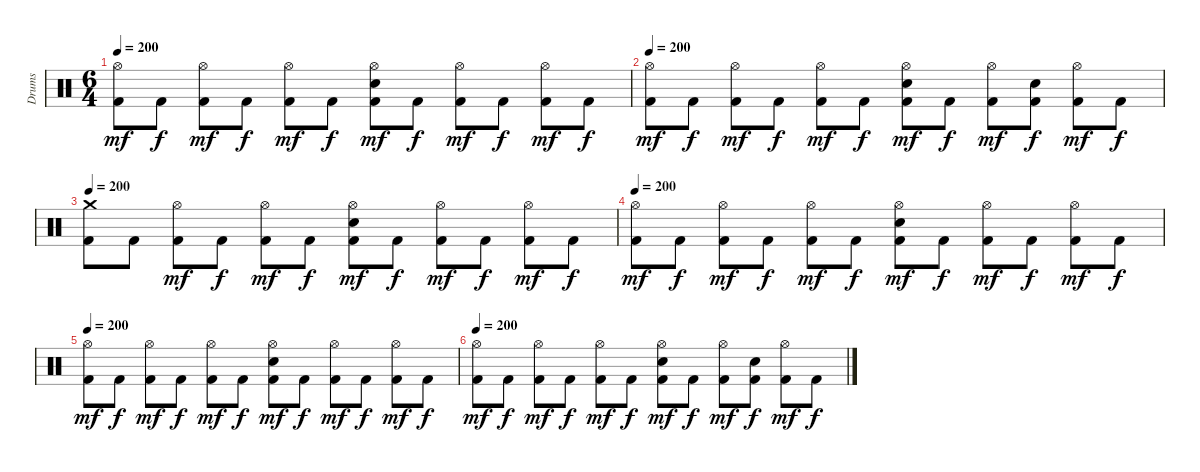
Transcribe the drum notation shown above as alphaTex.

\track ("Drums" "Drums") {instrument percussion}
\staff {score}
\articulation defaults
\ts (6 4)
\tempo 200
\clef neutral
\ks c
("Hi-Hat (open)" "Kick (hit) 2").8{dy mf} "Kick (hit) 2".8{dy f} ("Hi-Hat (open)" "Kick (hit) 2").8{dy mf} "Kick (hit) 2".8{dy f} ("Hi-Hat (open)" "Kick (hit) 2").8{dy mf} "Kick (hit) 2".8{dy f} ("Hi-Hat (open)" "Electric Snare (hit)" "Kick (hit) 2").8{dy mf} "Kick (hit) 2".8{dy f} ("Hi-Hat (open)" "Kick (hit) 2").8{dy mf} "Kick (hit) 2".8{dy f} ("Hi-Hat (open)" "Kick (hit) 2").8{dy mf} "Kick (hit) 2".8{dy f} |
\tempo 200
("Hi-Hat (open)" "Kick (hit) 2").8{dy mf} "Kick (hit) 2".8{dy f} ("Hi-Hat (open)" "Kick (hit) 2").8{dy mf} "Kick (hit) 2".8{dy f} ("Hi-Hat (open)" "Kick (hit) 2").8{dy mf} "Kick (hit) 2".8{dy f} ("Hi-Hat (open)" "Electric Snare (hit)" "Kick (hit) 2").8{dy mf} "Kick (hit) 2".8{dy f} ("Hi-Hat (open)" "Kick (hit) 2").8{dy mf} ("Electric Snare (hit)" "Kick (hit) 2").8{dy f} ("Hi-Hat (open)" "Kick (hit) 2").8{dy mf} "Kick (hit) 2".8{dy f} |
\tempo 200
("Crash medium (hit)" "Kick (hit) 2").8 "Kick (hit) 2".8 ("Hi-Hat (open)" "Kick (hit) 2").8{dy mf} "Kick (hit) 2".8{dy f} ("Hi-Hat (open)" "Kick (hit) 2").8{dy mf} "Kick (hit) 2".8{dy f} ("Hi-Hat (open)" "Electric Snare (hit)" "Kick (hit) 2").8{dy mf} "Kick (hit) 2".8{dy f} ("Hi-Hat (open)" "Kick (hit) 2").8{dy mf} "Kick (hit) 2".8{dy f} ("Hi-Hat (open)" "Kick (hit) 2").8{dy mf} "Kick (hit) 2".8{dy f} |
\tempo 200
("Hi-Hat (open)" "Kick (hit) 2").8{dy mf} "Kick (hit) 2".8{dy f} ("Hi-Hat (open)" "Kick (hit) 2").8{dy mf} "Kick (hit) 2".8{dy f} ("Hi-Hat (open)" "Kick (hit) 2").8{dy mf} "Kick (hit) 2".8{dy f} ("Hi-Hat (open)" "Electric Snare (hit)" "Kick (hit) 2").8{dy mf} "Kick (hit) 2".8{dy f} ("Hi-Hat (open)" "Kick (hit) 2").8{dy mf} "Kick (hit) 2".8{dy f} ("Hi-Hat (open)" "Kick (hit) 2").8{dy mf} "Kick (hit) 2".8{dy f} |
\tempo 200
("Hi-Hat (open)" "Kick (hit) 2").8{dy mf} "Kick (hit) 2".8{dy f} ("Hi-Hat (open)" "Kick (hit) 2").8{dy mf} "Kick (hit) 2".8{dy f} ("Hi-Hat (open)" "Kick (hit) 2").8{dy mf} "Kick (hit) 2".8{dy f} ("Hi-Hat (open)" "Electric Snare (hit)" "Kick (hit) 2").8{dy mf} "Kick (hit) 2".8{dy f} ("Hi-Hat (open)" "Kick (hit) 2").8{dy mf} "Kick (hit) 2".8{dy f} ("Hi-Hat (open)" "Kick (hit) 2").8{dy mf} "Kick (hit) 2".8{dy f} |
\tempo 200
("Hi-Hat (open)" "Kick (hit) 2").8{dy mf} "Kick (hit) 2".8{dy f} ("Hi-Hat (open)" "Kick (hit) 2").8{dy mf} "Kick (hit) 2".8{dy f} ("Hi-Hat (open)" "Kick (hit) 2").8{dy mf} "Kick (hit) 2".8{dy f} ("Hi-Hat (open)" "Electric Snare (hit)" "Kick (hit) 2").8{dy mf} "Kick (hit) 2".8{dy f} ("Hi-Hat (open)" "Kick (hit) 2").8{dy mf} ("Electric Snare (hit)" "Kick (hit) 2").8{dy f} ("Hi-Hat (open)" "Kick (hit) 2").8{dy mf} "Kick (hit) 2".8{dy f}
